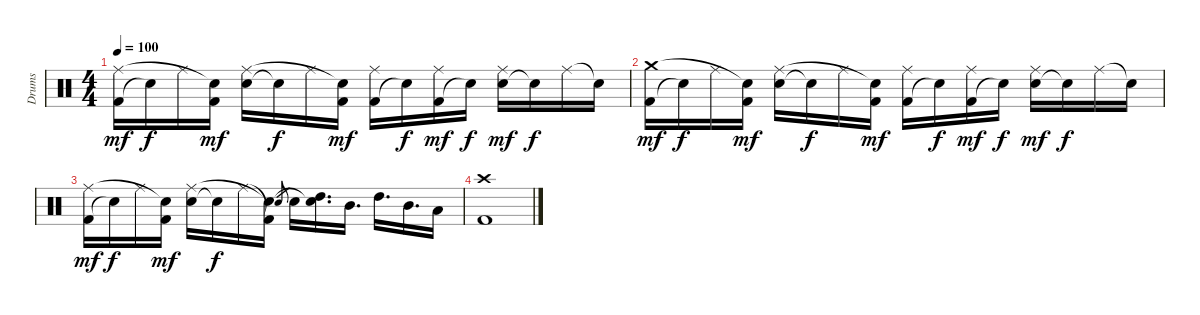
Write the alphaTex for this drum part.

\track ("Drums" "Drums") {instrument percussion}
\staff {score}
\articulation defaults
\ts (4 4)
\tempo 100
\clef neutral
\ks c
("Kick (hit) 2" "Ride (middle)").16{dy mf} "Snare (hit)"{t}.16{dy f} "Ride (middle)".16 ("Kick (hit) 2" "Snare (hit)"{t}).16{dy mf} ("Snare (hit) 2" "Ride (middle)").16 "Snare (hit)"{t}.16{dy f} "Ride (middle)".16 ("Kick (hit) 2" "Snare (hit)"{t}).16{dy mf} ("Kick (hit) 2" "Ride (middle)").16 "Snare (hit)"{t}.16{dy f} ("Kick (hit) 2" "Ride (middle)").16{dy mf} "Snare (hit)"{t}.16{dy f} ("Snare (hit) 2" "Ride (middle)").16{dy mf} "Snare (hit)"{t}.16{dy f} "Ride (middle)".16 "Snare (hit)"{t}.16 |
("Kick (hit) 2" "Crash medium (hit)").16{dy mf} "Snare (hit)"{t}.16{dy f} "Ride (middle)".16 ("Kick (hit) 2" "Snare (hit)"{t}).16{dy mf} ("Snare (hit) 2" "Ride (middle)").16 "Snare (hit)"{t}.16{dy f} "Ride (middle)".16 ("Kick (hit) 2" "Snare (hit)"{t}).16{dy mf} ("Kick (hit) 2" "Ride (middle)").16 "Snare (hit)"{t}.16{dy f} ("Kick (hit) 2" "Ride (middle)").16{dy mf} "Snare (hit)"{t}.16{dy f} ("Snare (hit) 2" "Ride (middle)").16{dy mf} "Snare (hit)"{t}.16{dy f} "Ride (middle)".16 "Snare (hit)"{t}.16 |
("Kick (hit) 2" "Ride (middle)").16{dy mf} "Snare (hit)"{t}.16{dy f} "Ride (middle)".16 ("Kick (hit) 2" "Snare (hit)"{t}).16{dy mf} ("Snare (hit) 2" "Ride (middle)").16 "Snare (hit)"{t}.16{dy f} "Ride (middle)".16 ("Kick (hit) 2"{t} "Snare (hit)"{t}).16 "Snare (hit) 2".8{gr} "Snare (hit) 2".16 ("High Tom (hit)" "Snare (hit)"{t}).16{d} "Mid Tom (hit)".16{d} "High Tom (hit)".16{d} "Mid Tom (hit)".16{d} "Low Tom (hit)".16 |
("Crash high (hit)" "Kick (hit) 2").1
